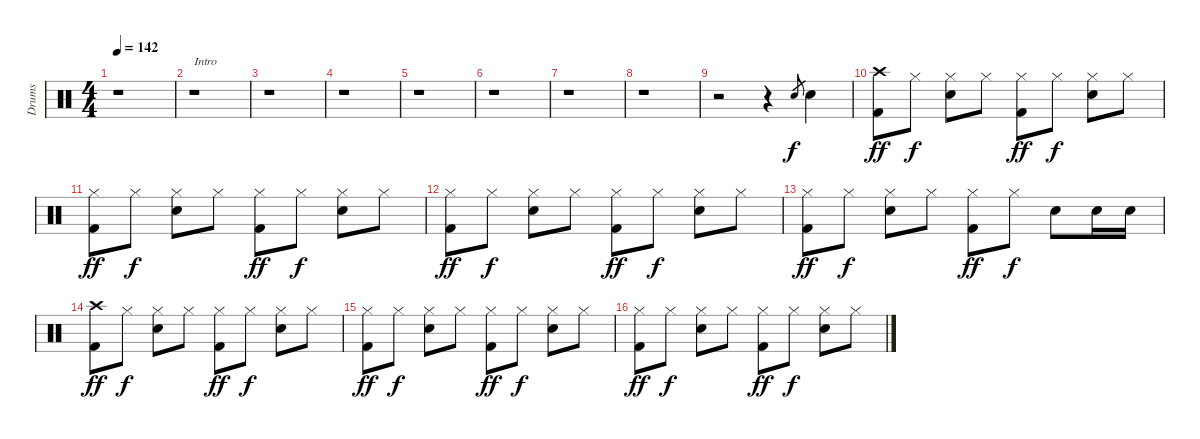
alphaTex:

\track ("Drums" "Drums") {instrument percussion}
\staff {score}
\articulation defaults
\ts (4 4)
\tempo 142
\clef neutral
\ks c
r.1{dy f} |
r.1{txt "Intro"} |
r.1 |
r.1 |
r.1 |
r.1 |
r.1 |
r.1 |
r.2 r.4 "Snare (hit) 2".8{gr} "Snare (hit) 2".4 |
("Crash high (hit)" "Kick (hit) 2").8{dy ff} "Hi-Hat (closed)".8{dy f} ("Hi-Hat (closed)" "Snare (hit) 2").8 "Hi-Hat (closed)".8 ("Hi-Hat (closed)" "Kick (hit) 2").8{dy ff} "Hi-Hat (closed)".8{dy f} ("Hi-Hat (closed)" "Snare (hit) 2").8 "Hi-Hat (closed)".8 |
("Hi-Hat (closed)" "Kick (hit) 2").8{dy ff} "Hi-Hat (closed)".8{dy f} ("Hi-Hat (closed)" "Snare (hit) 2").8 "Hi-Hat (closed)".8 ("Hi-Hat (closed)" "Kick (hit) 2").8{dy ff} "Hi-Hat (closed)".8{dy f} ("Hi-Hat (closed)" "Snare (hit) 2").8 "Hi-Hat (closed)".8 |
("Hi-Hat (closed)" "Kick (hit) 2").8{dy ff} "Hi-Hat (closed)".8{dy f} ("Hi-Hat (closed)" "Snare (hit) 2").8 "Hi-Hat (closed)".8 ("Hi-Hat (closed)" "Kick (hit) 2").8{dy ff} "Hi-Hat (closed)".8{dy f} ("Hi-Hat (closed)" "Snare (hit) 2").8 "Hi-Hat (closed)".8 |
("Hi-Hat (closed)" "Kick (hit) 2").8{dy ff} "Hi-Hat (closed)".8{dy f} ("Hi-Hat (closed)" "Snare (hit) 2").8 "Hi-Hat (closed)".8 ("Hi-Hat (closed)" "Kick (hit) 2").8{dy ff} "Hi-Hat (closed)".8{dy f} "Snare (hit) 2".8 "Snare (hit) 2".16 "Snare (hit) 2".16 |
("Crash high (hit)" "Kick (hit) 2").8{dy ff} "Hi-Hat (closed)".8{dy f} ("Hi-Hat (closed)" "Snare (hit) 2").8 "Hi-Hat (closed)".8 ("Hi-Hat (closed)" "Kick (hit) 2").8{dy ff} "Hi-Hat (closed)".8{dy f} ("Hi-Hat (closed)" "Snare (hit) 2").8 "Hi-Hat (closed)".8 |
("Hi-Hat (closed)" "Kick (hit) 2").8{dy ff} "Hi-Hat (closed)".8{dy f} ("Hi-Hat (closed)" "Snare (hit) 2").8 "Hi-Hat (closed)".8 ("Hi-Hat (closed)" "Kick (hit) 2").8{dy ff} "Hi-Hat (closed)".8{dy f} ("Hi-Hat (closed)" "Snare (hit) 2").8 "Hi-Hat (closed)".8 |
("Hi-Hat (closed)" "Kick (hit) 2").8{dy ff} "Hi-Hat (closed)".8{dy f} ("Hi-Hat (closed)" "Snare (hit) 2").8 "Hi-Hat (closed)".8 ("Hi-Hat (closed)" "Kick (hit) 2").8{dy ff} "Hi-Hat (closed)".8{dy f} ("Hi-Hat (closed)" "Snare (hit) 2").8 "Hi-Hat (closed)".8
